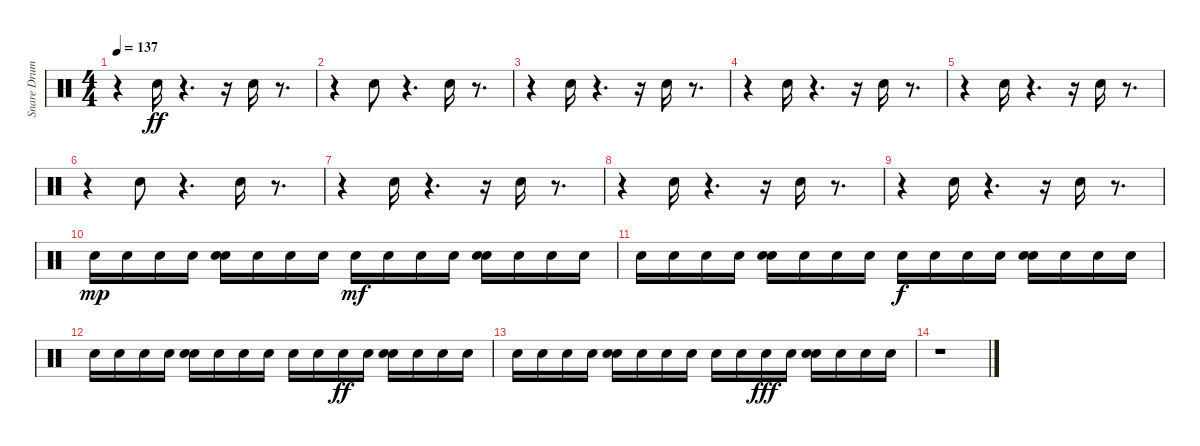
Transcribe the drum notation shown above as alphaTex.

\track ("Snare Drum" "Snare Drum") {instrument percussion}
\staff {score}
\articulation defaults
\ts (4 4)
\tempo 137
\clef neutral
\ks c
r.4{dy ff} "Electric Snare (hit)".16 r.4{d} r.16 "Electric Snare (hit)".16 r.8{d} |
r.4 "Electric Snare (hit)".8 r.4{d} "Electric Snare (hit)".16 r.8{d} |
r.4 "Electric Snare (hit)".16 r.4{d} r.16 "Electric Snare (hit)".16 r.8{d} |
r.4 "Electric Snare (hit)".16 r.4{d} r.16 "Electric Snare (hit)".16 r.8{d} |
r.4 "Electric Snare (hit)".16 r.4{d} r.16 "Electric Snare (hit)".16 r.8{d} |
r.4 "Electric Snare (hit)".8 r.4{d} "Electric Snare (hit)".16 r.8{d} |
r.4 "Electric Snare (hit)".16 r.4{d} r.16 "Electric Snare (hit)".16 r.8{d} |
r.4 "Electric Snare (hit)".16 r.4{d} r.16 "Electric Snare (hit)".16 r.8{d} |
r.4 "Electric Snare (hit)".16 r.4{d} r.16 "Electric Snare (hit)".16 r.8{d} |
"Electric Snare (hit)".16{dy mp} "Electric Snare (hit)".16 "Electric Snare (hit)".16 "Electric Snare (hit)".16 ("Electric Snare (hit)" "Electric Snare (hit)").16 "Electric Snare (hit)".16 "Electric Snare (hit)".16 "Electric Snare (hit)".16 "Electric Snare (hit)".16{dy mf} "Electric Snare (hit)".16 "Electric Snare (hit)".16 "Electric Snare (hit)".16 ("Electric Snare (hit)" "Electric Snare (hit)").16 "Electric Snare (hit)".16 "Electric Snare (hit)".16 "Electric Snare (hit)".16 |
"Electric Snare (hit)".16 "Electric Snare (hit)".16 "Electric Snare (hit)".16 "Electric Snare (hit)".16 ("Electric Snare (hit)" "Electric Snare (hit)").16 "Electric Snare (hit)".16 "Electric Snare (hit)".16 "Electric Snare (hit)".16 "Electric Snare (hit)".16{dy f} "Electric Snare (hit)".16 "Electric Snare (hit)".16 "Electric Snare (hit)".16 ("Electric Snare (hit)" "Electric Snare (hit)").16 "Electric Snare (hit)".16 "Electric Snare (hit)".16 "Electric Snare (hit)".16 |
"Electric Snare (hit)".16 "Electric Snare (hit)".16 "Electric Snare (hit)".16 "Electric Snare (hit)".16 ("Electric Snare (hit)" "Electric Snare (hit)").16 "Electric Snare (hit)".16 "Electric Snare (hit)".16 "Electric Snare (hit)".16 "Electric Snare (hit)".16 "Electric Snare (hit)".16 "Electric Snare (hit)".16{dy ff} "Electric Snare (hit)".16 ("Electric Snare (hit)" "Electric Snare (hit)").16 "Electric Snare (hit)".16 "Electric Snare (hit)".16 "Electric Snare (hit)".16 |
"Electric Snare (hit)".16 "Electric Snare (hit)".16 "Electric Snare (hit)".16 "Electric Snare (hit)".16 ("Electric Snare (hit)" "Electric Snare (hit)").16 "Electric Snare (hit)".16 "Electric Snare (hit)".16 "Electric Snare (hit)".16 "Electric Snare (hit)".16 "Electric Snare (hit)".16 "Electric Snare (hit)".16{dy fff} "Electric Snare (hit)".16 ("Electric Snare (hit)" "Electric Snare (hit)").16 "Electric Snare (hit)".16 "Electric Snare (hit)".16 "Electric Snare (hit)".16 |
r.1
